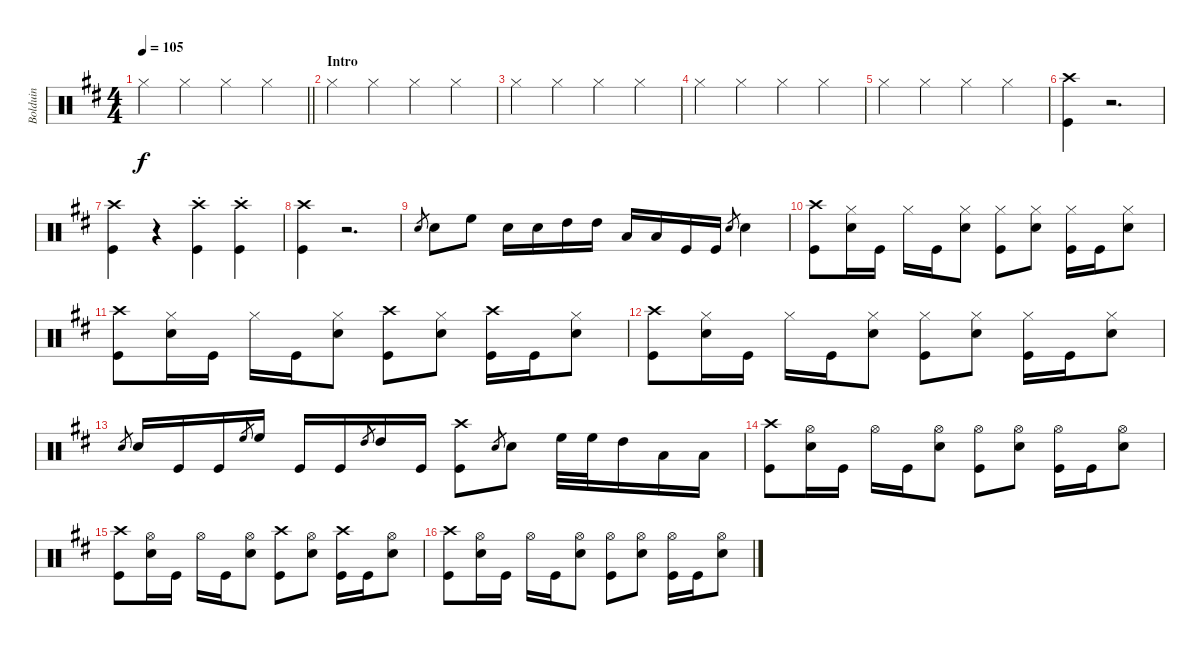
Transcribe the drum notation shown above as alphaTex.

\track ("Bolduin" "Bolduin") {instrument percussion}
\staff {score}
\articulation defaults
\ts (4 4)
\tempo 105
\clef neutral
\barLineRight lightlight
\ks bminor "Hi-Hat (closed)".4{dy f} "Hi-Hat (closed)".4 "Hi-Hat (closed)".4 "Hi-Hat (closed)".4
|
\section ("" "Intro")
"Hi-Hat (closed)".4 "Hi-Hat (closed)".4 "Hi-Hat (closed)".4 "Hi-Hat (closed)".4 |
"Hi-Hat (closed)".4 "Hi-Hat (closed)".4 "Hi-Hat (closed)".4 "Hi-Hat (closed)".4 |
"Hi-Hat (closed)".4 "Hi-Hat (closed)".4 "Hi-Hat (closed)".4 "Hi-Hat (closed)".4 |
"Hi-Hat (closed)".4 "Hi-Hat (closed)".4 "Hi-Hat (closed)".4 "Hi-Hat (closed)".4 |
("Crash high (hit)" "Kick (hit)").4 r.2{d} |
("Crash high (hit)" "Kick (hit)").4 r.4 ("Crash high (hit)"{st} "Kick (hit)").4 ("Crash high (hit)"{st} "Kick (hit)").4 |
("Crash high (hit)" "Kick (hit)").4 r.2{d} |
"Snare (hit) 2".8{gr} "Snare (hit) 2".8 "High Floor Tom (hit)".8 "Snare (hit) 2".16 "Snare (hit) 2".16 "High Tom (hit)".16 "High Tom (hit)".16 "Low Tom (hit)".16 "Low Tom (hit)".16 "Kick (hit)".16 "Kick (hit)".16 "Snare (hit) 2".8{gr} "Snare (hit) 2".4 |
("Kick (hit)" "Crash high (hit)").8 ("Hi-Hat (closed)" "Snare (hit) 2").16 "Kick (hit)".16 "Hi-Hat (closed)".16 "Kick (hit)".16 ("Snare (hit) 2" "Hi-Hat (closed)").8 ("Kick (hit)" "Hi-Hat (closed)").8 ("Snare (hit) 2" "Hi-Hat (closed)").8 ("Kick (hit)" "Hi-Hat (closed)").16 "Kick (hit)".16 ("Hi-Hat (closed)" "Snare (hit) 2").8 |
("Kick (hit)" "Crash high (hit)").8 ("Hi-Hat (closed)" "Snare (hit) 2").16 "Kick (hit)".16 "Hi-Hat (closed)".16 "Kick (hit)".16 ("Snare (hit) 2" "Hi-Hat (closed)").8 ("Kick (hit)" "Crash high (hit)").8 ("Snare (hit) 2" "Hi-Hat (closed)").8 ("Kick (hit)" "Crash high (hit)").16 "Kick (hit)".16 ("Hi-Hat (closed)" "Snare (hit) 2").8 |
("Kick (hit)" "Crash high (hit)").8 ("Hi-Hat (closed)" "Snare (hit) 2").16 "Kick (hit)".16 "Hi-Hat (closed)".16 "Kick (hit)".16 ("Snare (hit) 2" "Hi-Hat (closed)").8 ("Kick (hit)" "Hi-Hat (closed)").8 ("Snare (hit) 2" "Hi-Hat (closed)").8 ("Kick (hit)" "Hi-Hat (closed)").16 "Kick (hit)".16 ("Hi-Hat (closed)" "Snare (hit) 2").8 |
"Snare (hit) 2".8{gr} "Snare (hit) 2".16 "Kick (hit)".16 "Kick (hit)".16 "High Floor Tom (hit)".8{gr} "High Floor Tom (hit)".16 "Kick (hit)".16 "Kick (hit)".16 "High Tom (hit)".8{gr} "High Tom (hit)".16 "Kick (hit)".16 ("Crash high (hit)" "Kick (hit)").8 "Snare (hit) 2".8{gr} "Snare (hit) 2".8 "High Floor Tom (hit)".32 "High Floor Tom (hit)".32 "High Tom (hit)".16 "Low Tom (hit)".16 "Low Tom (hit)".16 |
("Kick (hit)" "Crash high (hit)").8 ("Hi-Hat (open)" "Snare (hit) 2").16 "Kick (hit)".16 "Hi-Hat (open)".16 "Kick (hit)".16 ("Snare (hit) 2" "Hi-Hat (open)").8 ("Kick (hit)" "Hi-Hat (open)").8 ("Snare (hit) 2" "Hi-Hat (open)").8 ("Kick (hit)" "Hi-Hat (open)").16 "Kick (hit)".16 ("Hi-Hat (open)" "Snare (hit) 2").8 |
("Kick (hit)" "Crash high (hit)").8 ("Hi-Hat (open)" "Snare (hit) 2").16 "Kick (hit)".16 "Hi-Hat (open)".16 "Kick (hit)".16 ("Snare (hit) 2" "Hi-Hat (open)").8 ("Kick (hit)" "Crash high (hit)").8 ("Snare (hit) 2" "Hi-Hat (open)").8 ("Kick (hit)" "Crash high (hit)").16 "Kick (hit)".16 ("Hi-Hat (open)" "Snare (hit) 2").8 |
("Kick (hit)" "Crash high (hit)").8 ("Hi-Hat (open)" "Snare (hit) 2").16 "Kick (hit)".16 "Hi-Hat (open)".16 "Kick (hit)".16 ("Snare (hit) 2" "Hi-Hat (open)").8 ("Kick (hit)" "Hi-Hat (open)").8 ("Snare (hit) 2" "Hi-Hat (open)").8 ("Kick (hit)" "Hi-Hat (open)").16 "Kick (hit)".16 ("Hi-Hat (open)" "Snare (hit) 2").8
